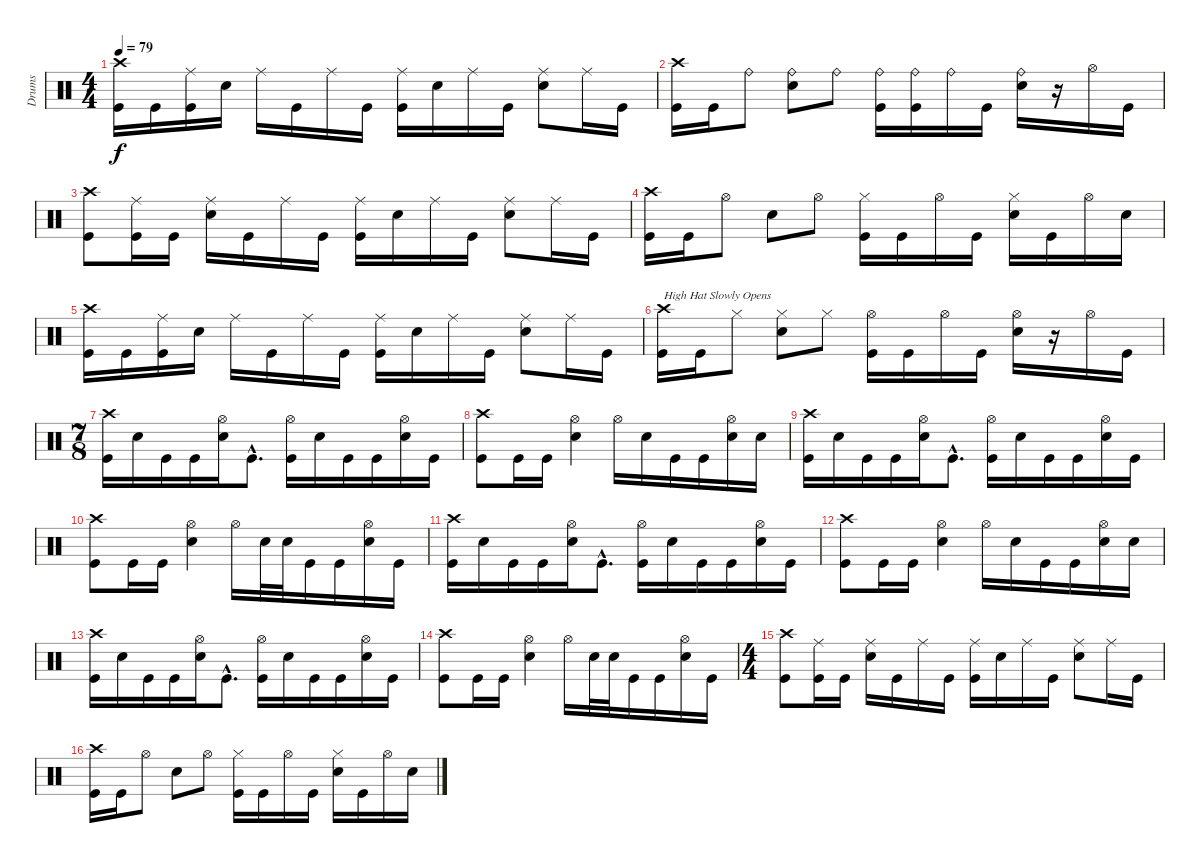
\track ("Drums" "Drums") {instrument percussion}
\staff {score}
\articulation defaults
\ts (4 4)
\tempo 79
\clef neutral
\ks c
("Crash high (hit)" "Kick (hit)").16{dy f} "Kick (hit)".16 ("Ride (middle)" "Kick (hit)").16 "Electric Snare (hit)".16 "Ride (middle)".16 "Kick (hit)".16 "Ride (middle)".16 "Kick (hit)".16 ("Ride (middle)" "Kick (hit)").16 "Electric Snare (hit)".16 "Ride (middle)".16 "Kick (hit)".16 ("Ride (middle)" "Electric Snare (hit)").8 "Ride (middle)".16 "Kick (hit)".16 |
("Crash high (hit)" "Kick (hit)").16 "Kick (hit)".16 "Ride (bell)".8 ("Ride (bell)" "Electric Snare (hit)").8 "Ride (bell)".8 ("Ride (bell)" "Kick (hit)").16 ("Ride (bell)" "Kick (hit)").16 "Ride (bell)".16 "Kick (hit)".16 ("Ride (bell)" "Electric Snare (hit)").16 r.16 "Hi-Hat (open)".16 "Kick (hit)".16 |
("Crash high (hit)" "Kick (hit)").8 ("Ride (middle)" "Kick (hit)").16 "Kick (hit)".16 ("Ride (middle)" "Electric Snare (hit)").16 "Kick (hit)".16 "Ride (middle)".16 "Kick (hit)".16 ("Ride (middle)" "Kick (hit)").16 "Electric Snare (hit)".16 "Ride (middle)".16 "Kick (hit)".16 ("Ride (middle)" "Electric Snare (hit)").8 "Ride (middle)".16 "Kick (hit)".16 |
("Crash high (hit)" "Kick (hit)").16 "Kick (hit)".16 "Hi-Hat (open)".8 "Electric Snare (hit)".8 "Hi-Hat (open)".8 ("Hi-Hat (closed)" "Kick (hit)").16 "Kick (hit)".16 "Hi-Hat (open)".16 "Kick (hit)".16 ("Hi-Hat (closed)" "Electric Snare (hit)").16 "Kick (hit)".16 "Hi-Hat (open)".16 "Electric Snare (hit)".16 |
("Crash high (hit)" "Kick (hit)").16 "Kick (hit)".16 ("Ride (middle)" "Kick (hit)").16 "Electric Snare (hit)".16 "Ride (middle)".16 "Kick (hit)".16 "Ride (middle)".16 "Kick (hit)".16 ("Ride (middle)" "Kick (hit)").16 "Electric Snare (hit)".16 "Ride (middle)".16 "Kick (hit)".16 ("Ride (middle)" "Electric Snare (hit)").8 "Ride (middle)".16 "Kick (hit)".16 |
("Crash high (hit)" "Kick (hit)").16{txt "High Hat Slowly Opens"} "Kick (hit)".16 "Hi-Hat (closed)".8 ("Hi-Hat (closed)" "Electric Snare (hit)").8 "Hi-Hat (closed)".8 ("Hi-Hat (open)" "Kick (hit)").16 "Kick (hit)".16 "Hi-Hat (open)".16 "Kick (hit)".16 ("Hi-Hat (open)" "Electric Snare (hit)").16 r.16 "Hi-Hat (open)".16 "Kick (hit)".16 |
\ts (7 8)
("Crash high (hit)" "Kick (hit)").16 "Electric Snare (hit)".16 "Kick (hit)".16 "Kick (hit)".16 ("Hi-Hat (open)" "Electric Snare (hit)").16 "Kick (hit)"{hac}.8{d} ("Hi-Hat (open)" "Kick (hit)").16 "Electric Snare (hit)".16 "Kick (hit)".16 "Kick (hit)".16 ("Hi-Hat (open)" "Electric Snare (hit)").16 "Kick (hit)".16 |
("Crash high (hit)" "Kick (hit)").8 "Kick (hit)".16 "Kick (hit)".16 ("Hi-Hat (open)" "Electric Snare (hit)").4 "Hi-Hat (open)".16 "Electric Snare (hit)".16 "Kick (hit)".16 "Kick (hit)".16 ("Hi-Hat (open)" "Electric Snare (hit)").16 "Electric Snare (hit)".16 |
("Crash high (hit)" "Kick (hit)").16 "Electric Snare (hit)".16 "Kick (hit)".16 "Kick (hit)".16 ("Hi-Hat (open)" "Electric Snare (hit)").16 "Kick (hit)"{hac}.8{d} ("Hi-Hat (open)" "Kick (hit)").16 "Electric Snare (hit)".16 "Kick (hit)".16 "Kick (hit)".16 ("Hi-Hat (open)" "Electric Snare (hit)").16 "Kick (hit)".16 |
("Crash high (hit)" "Kick (hit)").8 "Kick (hit)".16 "Kick (hit)".16 ("Hi-Hat (open)" "Electric Snare (hit)").4 "Hi-Hat (open)".16 "Electric Snare (hit)".32 "Electric Snare (hit)".32 "Kick (hit)".16 "Kick (hit)".16 ("Hi-Hat (open)" "Electric Snare (hit)").16 "Kick (hit)".16 |
("Crash high (hit)" "Kick (hit)").16 "Electric Snare (hit)".16 "Kick (hit)".16 "Kick (hit)".16 ("Hi-Hat (open)" "Electric Snare (hit)").16 "Kick (hit)"{hac}.8{d} ("Hi-Hat (open)" "Kick (hit)").16 "Electric Snare (hit)".16 "Kick (hit)".16 "Kick (hit)".16 ("Hi-Hat (open)" "Electric Snare (hit)").16 "Kick (hit)".16 |
("Crash high (hit)" "Kick (hit)").8 "Kick (hit)".16 "Kick (hit)".16 ("Hi-Hat (open)" "Electric Snare (hit)").4 "Hi-Hat (open)".16 "Electric Snare (hit)".16 "Kick (hit)".16 "Kick (hit)".16 ("Hi-Hat (open)" "Electric Snare (hit)").16 "Electric Snare (hit)".16 |
("Crash high (hit)" "Kick (hit)").16 "Electric Snare (hit)".16 "Kick (hit)".16 "Kick (hit)".16 ("Hi-Hat (open)" "Electric Snare (hit)").16 "Kick (hit)"{hac}.8{d} ("Hi-Hat (open)" "Kick (hit)").16 "Electric Snare (hit)".16 "Kick (hit)".16 "Kick (hit)".16 ("Hi-Hat (open)" "Electric Snare (hit)").16 "Kick (hit)".16 |
("Crash high (hit)" "Kick (hit)").8 "Kick (hit)".16 "Kick (hit)".16 ("Hi-Hat (open)" "Electric Snare (hit)").4 "Hi-Hat (open)".16 "Electric Snare (hit)".32 "Electric Snare (hit)".32 "Kick (hit)".16 "Kick (hit)".16 ("Hi-Hat (open)" "Electric Snare (hit)").16 "Kick (hit)".16 |
\ts (4 4)
("Crash high (hit)" "Kick (hit)").8 ("Ride (middle)" "Kick (hit)").16 "Kick (hit)".16 ("Ride (middle)" "Electric Snare (hit)").16 "Kick (hit)".16 "Ride (middle)".16 "Kick (hit)".16 ("Ride (middle)" "Kick (hit)").16 "Electric Snare (hit)".16 "Ride (middle)".16 "Kick (hit)".16 ("Ride (middle)" "Electric Snare (hit)").8 "Ride (middle)".16 "Kick (hit)".16 |
("Crash high (hit)" "Kick (hit)").16 "Kick (hit)".16 "Hi-Hat (open)".8 "Electric Snare (hit)".8 "Hi-Hat (open)".8 ("Hi-Hat (closed)" "Kick (hit)").16 "Kick (hit)".16 "Hi-Hat (open)".16 "Kick (hit)".16 ("Hi-Hat (closed)" "Electric Snare (hit)").16 "Kick (hit)".16 "Hi-Hat (open)".16 "Electric Snare (hit)".16
